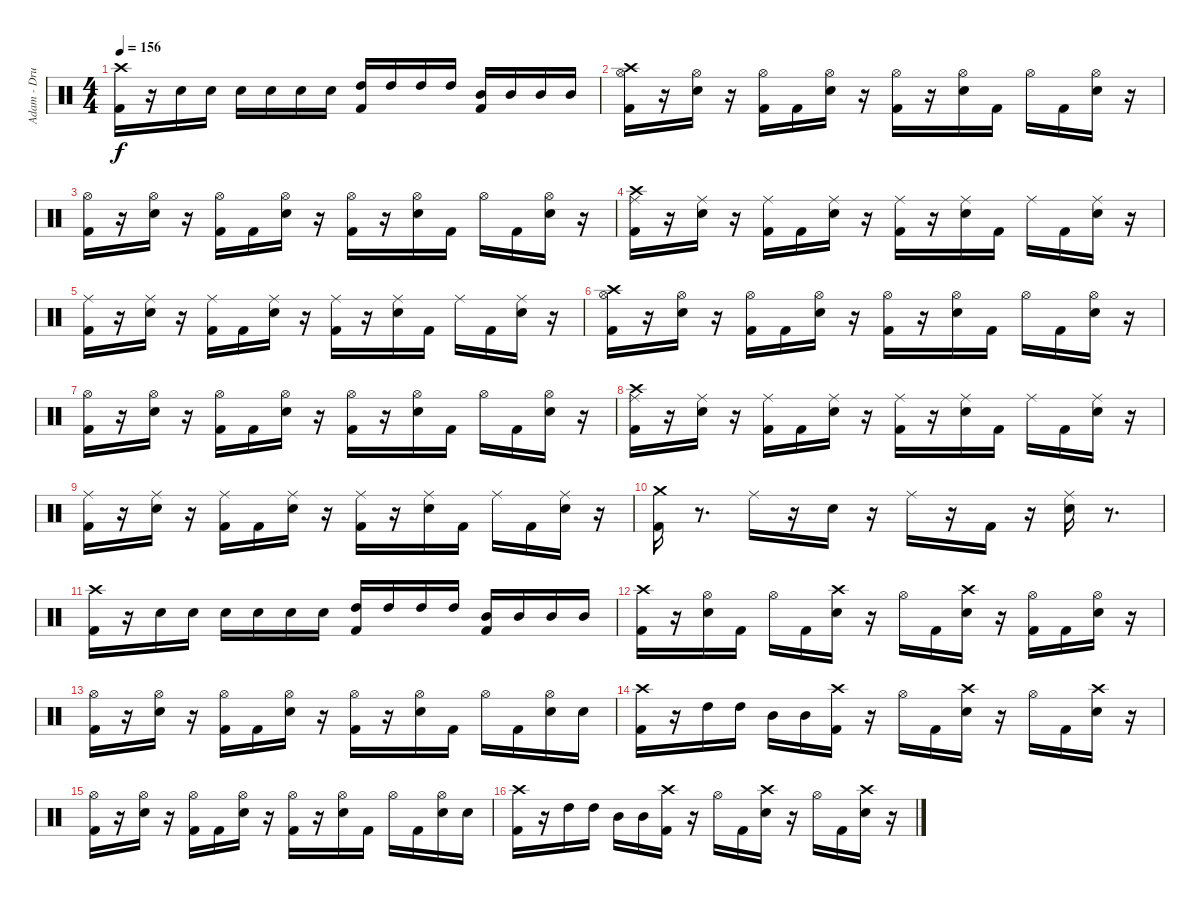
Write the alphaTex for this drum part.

\track ("Adam - Drums" "Adam - Dru") {instrument percussion}
\staff {score}
\articulation defaults
\ts (4 4)
\tempo 156
\clef neutral
\ks c
("Crash high (hit)" "Kick (hit) 2").16{dy f} r.16 "Snare (hit) 2".16 "Snare (hit) 2".16 "Snare (hit) 2".16 "Snare (hit) 2".16 "Snare (hit) 2".16 "Snare (hit) 2".16 ("Kick (hit) 2" "High Tom (hit)").16 "High Tom (hit)".16 "High Tom (hit)".16 "High Tom (hit)".16 ("Mid Tom (hit)" "Kick (hit) 2").16 "Mid Tom (hit)".16 "Mid Tom (hit)".16 "Mid Tom (hit)".16 |
("Hi-Hat (open)" "Crash high (hit)" "Kick (hit) 2").16 r.16 ("Hi-Hat (open)" "Snare (hit) 2").16 r.16 ("Hi-Hat (open)" "Kick (hit) 2").16 "Kick (hit) 2".16 ("Hi-Hat (open)" "Snare (hit) 2").16 r.16 ("Hi-Hat (open)" "Kick (hit) 2").16 r.16 ("Hi-Hat (open)" "Snare (hit) 2").16 "Kick (hit) 2".16 "Hi-Hat (open)".16 "Kick (hit) 2".16 ("Hi-Hat (open)" "Snare (hit) 2").16 r.16 |
("Hi-Hat (open)" "Kick (hit) 2").16 r.16 ("Hi-Hat (open)" "Snare (hit) 2").16 r.16 ("Hi-Hat (open)" "Kick (hit) 2").16 "Kick (hit) 2".16 ("Hi-Hat (open)" "Snare (hit) 2").16 r.16 ("Hi-Hat (open)" "Kick (hit) 2").16 r.16 ("Hi-Hat (open)" "Snare (hit) 2").16 "Kick (hit) 2".16 "Hi-Hat (open)".16 "Kick (hit) 2".16 ("Hi-Hat (open)" "Snare (hit) 2").16 r.16 |
("Crash high (hit)" "Kick (hit) 2" "Ride (middle)").16 r.16 ("Snare (hit) 2" "Ride (middle)").16 r.16 ("Kick (hit) 2" "Ride (middle)").16 "Kick (hit) 2".16 ("Snare (hit) 2" "Ride (middle)").16 r.16 ("Ride (middle)" "Kick (hit) 2").16 r.16 ("Snare (hit) 2" "Ride (middle)").16 "Kick (hit) 2".16 "Ride (middle)".16 "Kick (hit) 2".16 ("Snare (hit) 2" "Ride (middle)").16 r.16 |
("Kick (hit) 2" "Ride (middle)").16 r.16 ("Snare (hit) 2" "Ride (middle)").16 r.16 ("Kick (hit) 2" "Ride (middle)").16 "Kick (hit) 2".16 ("Snare (hit) 2" "Ride (middle)").16 r.16 ("Kick (hit) 2" "Ride (middle)").16 r.16 ("Snare (hit) 2" "Ride (middle)").16 "Kick (hit) 2".16 "Ride (middle)".16 "Kick (hit) 2".16 ("Snare (hit) 2" "Ride (middle)").16 r.16 |
("Hi-Hat (open)" "Crash high (hit)" "Kick (hit) 2").16 r.16 ("Hi-Hat (open)" "Snare (hit) 2").16 r.16 ("Hi-Hat (open)" "Kick (hit) 2").16 "Kick (hit) 2".16 ("Hi-Hat (open)" "Snare (hit) 2").16 r.16 ("Hi-Hat (open)" "Kick (hit) 2").16 r.16 ("Hi-Hat (open)" "Snare (hit) 2").16 "Kick (hit) 2".16 "Hi-Hat (open)".16 "Kick (hit) 2".16 ("Hi-Hat (open)" "Snare (hit) 2").16 r.16 |
("Hi-Hat (open)" "Kick (hit) 2").16 r.16 ("Hi-Hat (open)" "Snare (hit) 2").16 r.16 ("Hi-Hat (open)" "Kick (hit) 2").16 "Kick (hit) 2".16 ("Hi-Hat (open)" "Snare (hit) 2").16 r.16 ("Hi-Hat (open)" "Kick (hit) 2").16 r.16 ("Hi-Hat (open)" "Snare (hit) 2").16 "Kick (hit) 2".16 "Hi-Hat (open)".16 "Kick (hit) 2".16 ("Hi-Hat (open)" "Snare (hit) 2").16 r.16 |
("Crash high (hit)" "Kick (hit) 2" "Ride (middle)").16 r.16 ("Snare (hit) 2" "Ride (middle)").16 r.16 ("Kick (hit) 2" "Ride (middle)").16 "Kick (hit) 2".16 ("Snare (hit) 2" "Ride (middle)").16 r.16 ("Ride (middle)" "Kick (hit) 2").16 r.16 ("Snare (hit) 2" "Ride (middle)").16 "Kick (hit) 2".16 "Ride (middle)".16 "Kick (hit) 2".16 ("Snare (hit) 2" "Ride (middle)").16 r.16 |
("Kick (hit) 2" "Ride (middle)").16 r.16 ("Snare (hit) 2" "Ride (middle)").16 r.16 ("Kick (hit) 2" "Ride (middle)").16 "Kick (hit) 2".16 ("Snare (hit) 2" "Ride (middle)").16 r.16 ("Kick (hit) 2" "Ride (middle)").16 r.16 ("Snare (hit) 2" "Ride (middle)").16 "Kick (hit) 2".16 "Ride (middle)".16 "Kick (hit) 2".16 ("Snare (hit) 2" "Ride (middle)").16 r.16 |
("Crash medium (hit)" "Kick (hit) 2").16 r.8{d} "Ride (middle)".16 r.16 "Snare (hit) 2".16 r.16 "Ride (middle)".16 r.16 "Kick (hit) 2".16 r.16 ("Snare (hit) 2" "Ride (middle)").16 r.8{d} |
("Crash high (hit)" "Kick (hit) 2").16 r.16 "Snare (hit) 2".16 "Snare (hit) 2".16 "Snare (hit) 2".16 "Snare (hit) 2".16 "Snare (hit) 2".16 "Snare (hit) 2".16 ("Kick (hit) 2" "High Tom (hit)").16 "High Tom (hit)".16 "High Tom (hit)".16 "High Tom (hit)".16 ("Mid Tom (hit)" "Kick (hit) 2").16 "Mid Tom (hit)".16 "Mid Tom (hit)".16 "Mid Tom (hit)".16 |
("Crash high (hit)" "Kick (hit) 2").16 r.16 ("Snare (hit) 2" "Hi-Hat (open)").16 "Kick (hit) 2".16 "Hi-Hat (open)".16 "Kick (hit) 2".16 ("Crash high (hit)" "Snare (hit) 2").16 r.16 "Hi-Hat (open)".16 "Kick (hit) 2".16 ("Snare (hit) 2" "Crash high (hit)").16 r.16 ("Kick (hit) 2" "Hi-Hat (open)").16 "Kick (hit) 2".16 ("Snare (hit) 2" "Hi-Hat (open)").16 r.16 |
("Kick (hit) 2" "Hi-Hat (open)").16 r.16 ("Hi-Hat (open)" "Snare (hit) 2").16 r.16 ("Hi-Hat (open)" "Kick (hit) 2").16 "Kick (hit) 2".16 ("Hi-Hat (open)" "Snare (hit) 2").16 r.16 ("Hi-Hat (open)" "Kick (hit) 2").16 r.16 ("Hi-Hat (open)" "Snare (hit) 2").16 "Kick (hit) 2".16 "Hi-Hat (open)".16 "Kick (hit) 2".16 ("Hi-Hat (open)" "Snare (hit) 2").16 "Snare (hit) 2".16 |
("Kick (hit) 2" "Crash high (hit)").16 r.16 "High Tom (hit)".16 "High Tom (hit)".16 "Mid Tom (hit)".16 "Mid Tom (hit)".16 ("Crash high (hit)" "Kick (hit) 2").16 r.16 "Hi-Hat (open)".16 "Kick (hit) 2".16 ("Crash high (hit)" "Snare (hit) 2").16 r.16 "Hi-Hat (open)".16 "Kick (hit) 2".16 ("Snare (hit) 2" "Crash high (hit)").16 r.16 |
("Kick (hit) 2" "Hi-Hat (open)").16 r.16 ("Hi-Hat (open)" "Snare (hit) 2").16 r.16 ("Hi-Hat (open)" "Kick (hit) 2").16 "Kick (hit) 2".16 ("Hi-Hat (open)" "Snare (hit) 2").16 r.16 ("Hi-Hat (open)" "Kick (hit) 2").16 r.16 ("Hi-Hat (open)" "Snare (hit) 2").16 "Kick (hit) 2".16 "Hi-Hat (open)".16 "Kick (hit) 2".16 ("Hi-Hat (open)" "Snare (hit) 2").16 "Snare (hit) 2".16 |
("Kick (hit) 2" "Crash high (hit)").16 r.16 "High Tom (hit)".16 "High Tom (hit)".16 "Mid Tom (hit)".16 "Mid Tom (hit)".16 ("Crash high (hit)" "Kick (hit) 2").16 r.16 "Hi-Hat (open)".16 "Kick (hit) 2".16 ("Crash high (hit)" "Snare (hit) 2").16 r.16 "Hi-Hat (open)".16 "Kick (hit) 2".16 ("Snare (hit) 2" "Crash high (hit)").16 r.16
